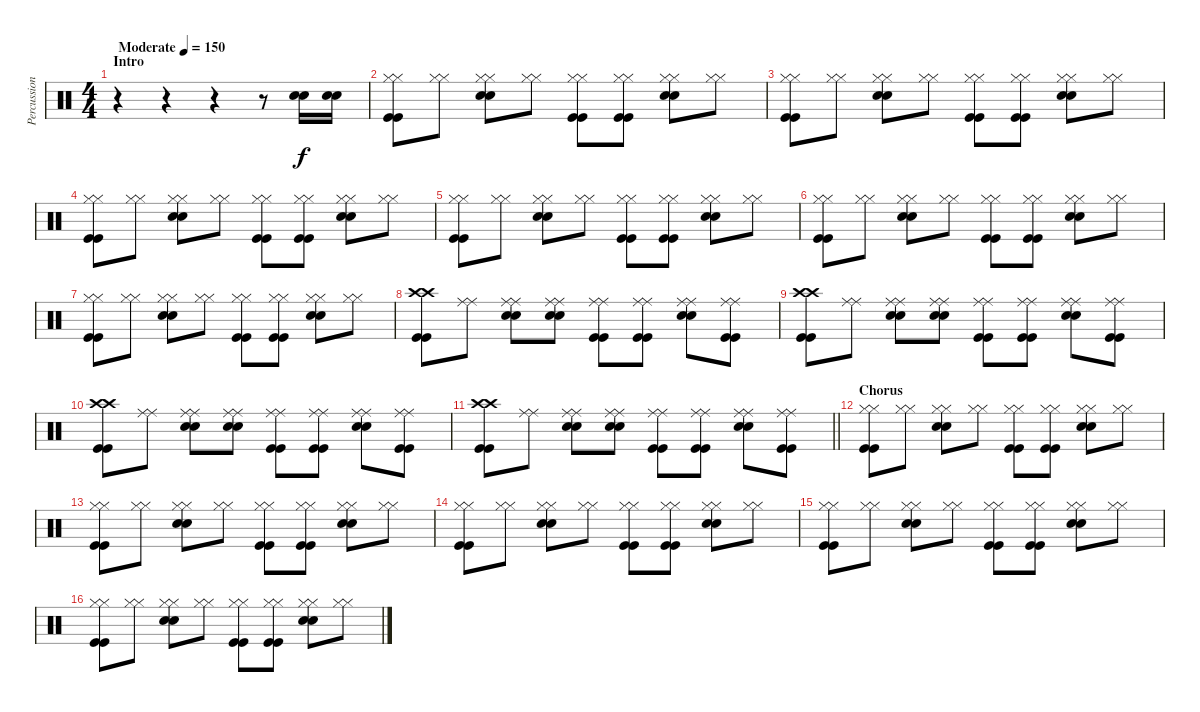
\track ("Percussion" "Percussion") {instrument percussion bank 129}
\staff
\articulation defaults
\ts (4 4)
\section ("" "Intro")
\tempo (150 "Moderate")
\clef neutral
\ks c
r.4{dy f} r.4 r.4 r.8 ("Snare (hit) 2" "Snare (hit) 2").16 ("Snare (hit) 2" "Snare (hit) 2").16 |
("Hi-Hat (closed)" "Hi-Hat (closed)" "Kick (hit)" "Kick (hit)").8 ("Hi-Hat (closed)" "Hi-Hat (closed)").8 ("Hi-Hat (closed)" "Hi-Hat (closed)" "Snare (hit) 2" "Snare (hit) 2").8 ("Hi-Hat (closed)" "Hi-Hat (closed)").8 ("Hi-Hat (closed)" "Hi-Hat (closed)" "Kick (hit)" "Kick (hit)").8 ("Hi-Hat (closed)" "Hi-Hat (closed)" "Kick (hit)" "Kick (hit)").8 ("Hi-Hat (closed)" "Hi-Hat (closed)" "Snare (hit) 2" "Snare (hit) 2").8 ("Hi-Hat (closed)" "Hi-Hat (closed)").8 |
("Hi-Hat (closed)" "Hi-Hat (closed)" "Kick (hit)" "Kick (hit)").8 ("Hi-Hat (closed)" "Hi-Hat (closed)").8 ("Hi-Hat (closed)" "Hi-Hat (closed)" "Snare (hit) 2" "Snare (hit) 2").8 ("Hi-Hat (closed)" "Hi-Hat (closed)").8 ("Hi-Hat (closed)" "Hi-Hat (closed)" "Kick (hit)" "Kick (hit)").8 ("Hi-Hat (closed)" "Hi-Hat (closed)" "Kick (hit)" "Kick (hit)").8 ("Hi-Hat (closed)" "Hi-Hat (closed)" "Snare (hit) 2" "Snare (hit) 2").8 ("Hi-Hat (closed)" "Hi-Hat (closed)").8 |
("Hi-Hat (closed)" "Hi-Hat (closed)" "Kick (hit)" "Kick (hit)").8 ("Hi-Hat (closed)" "Hi-Hat (closed)").8 ("Hi-Hat (closed)" "Hi-Hat (closed)" "Snare (hit) 2" "Snare (hit) 2").8 ("Hi-Hat (closed)" "Hi-Hat (closed)").8 ("Hi-Hat (closed)" "Hi-Hat (closed)" "Kick (hit)" "Kick (hit)").8 ("Hi-Hat (closed)" "Hi-Hat (closed)" "Kick (hit)" "Kick (hit)").8 ("Hi-Hat (closed)" "Hi-Hat (closed)" "Snare (hit) 2" "Snare (hit) 2").8 ("Hi-Hat (closed)" "Hi-Hat (closed)").8 |
("Hi-Hat (closed)" "Hi-Hat (closed)" "Kick (hit)" "Kick (hit)").8 ("Hi-Hat (closed)" "Hi-Hat (closed)").8 ("Hi-Hat (closed)" "Hi-Hat (closed)" "Snare (hit) 2" "Snare (hit) 2").8 ("Hi-Hat (closed)" "Hi-Hat (closed)").8 ("Hi-Hat (closed)" "Hi-Hat (closed)" "Kick (hit)" "Kick (hit)").8 ("Hi-Hat (closed)" "Hi-Hat (closed)" "Kick (hit)" "Kick (hit)").8 ("Hi-Hat (closed)" "Hi-Hat (closed)" "Snare (hit) 2" "Snare (hit) 2").8 ("Hi-Hat (closed)" "Hi-Hat (closed)").8 |
("Hi-Hat (closed)" "Hi-Hat (closed)" "Kick (hit)" "Kick (hit)").8 ("Hi-Hat (closed)" "Hi-Hat (closed)").8 ("Hi-Hat (closed)" "Hi-Hat (closed)" "Snare (hit) 2" "Snare (hit) 2").8 ("Hi-Hat (closed)" "Hi-Hat (closed)").8 ("Hi-Hat (closed)" "Hi-Hat (closed)" "Kick (hit)" "Kick (hit)").8 ("Hi-Hat (closed)" "Hi-Hat (closed)" "Kick (hit)" "Kick (hit)").8 ("Hi-Hat (closed)" "Hi-Hat (closed)" "Snare (hit) 2" "Snare (hit) 2").8 ("Hi-Hat (closed)" "Hi-Hat (closed)").8 |
("Hi-Hat (closed)" "Hi-Hat (closed)" "Kick (hit)" "Kick (hit)").8 ("Hi-Hat (closed)" "Hi-Hat (closed)").8 ("Hi-Hat (closed)" "Hi-Hat (closed)" "Snare (hit) 2" "Snare (hit) 2").8 ("Hi-Hat (closed)" "Hi-Hat (closed)").8 ("Hi-Hat (closed)" "Hi-Hat (closed)" "Kick (hit)" "Kick (hit)").8 ("Hi-Hat (closed)" "Hi-Hat (closed)" "Kick (hit)" "Kick (hit)").8 ("Hi-Hat (closed)" "Hi-Hat (closed)" "Snare (hit) 2" "Snare (hit) 2").8 ("Hi-Hat (closed)" "Hi-Hat (closed)").8 |
("Crash high (hit)" "Crash high (hit)" "Kick (hit)" "Kick (hit)").8 ("Ride (middle)" "Ride (middle)").8 ("Ride (middle)" "Ride (middle)" "Snare (hit) 2" "Snare (hit) 2").8 ("Ride (middle)" "Ride (middle)" "Snare (hit) 2" "Snare (hit) 2").8 ("Ride (middle)" "Ride (middle)" "Kick (hit)" "Kick (hit)").8 ("Ride (middle)" "Ride (middle)" "Kick (hit)" "Kick (hit)").8 ("Ride (middle)" "Ride (middle)" "Snare (hit) 2" "Snare (hit) 2").8 ("Ride (middle)" "Ride (middle)" "Kick (hit)" "Kick (hit)").8 |
("Crash high (hit)" "Crash high (hit)" "Kick (hit)" "Kick (hit)").8 ("Ride (middle)" "Ride (middle)").8 ("Ride (middle)" "Ride (middle)" "Snare (hit) 2" "Snare (hit) 2").8 ("Ride (middle)" "Ride (middle)" "Snare (hit) 2" "Snare (hit) 2").8 ("Ride (middle)" "Ride (middle)" "Kick (hit)" "Kick (hit)").8 ("Ride (middle)" "Ride (middle)" "Kick (hit)" "Kick (hit)").8 ("Ride (middle)" "Ride (middle)" "Snare (hit) 2" "Snare (hit) 2").8 ("Ride (middle)" "Ride (middle)" "Kick (hit)" "Kick (hit)").8 |
("Crash high (hit)" "Crash high (hit)" "Kick (hit)" "Kick (hit)").8 ("Ride (middle)" "Ride (middle)").8 ("Ride (middle)" "Ride (middle)" "Snare (hit) 2" "Snare (hit) 2").8 ("Ride (middle)" "Ride (middle)" "Snare (hit) 2" "Snare (hit) 2").8 ("Ride (middle)" "Ride (middle)" "Kick (hit)" "Kick (hit)").8 ("Ride (middle)" "Ride (middle)" "Kick (hit)" "Kick (hit)").8 ("Ride (middle)" "Ride (middle)" "Snare (hit) 2" "Snare (hit) 2").8 ("Ride (middle)" "Ride (middle)" "Kick (hit)" "Kick (hit)").8 |
\barLineRight lightlight
("Crash high (hit)" "Crash high (hit)" "Kick (hit)" "Kick (hit)").8 ("Ride (middle)" "Ride (middle)").8 ("Ride (middle)" "Ride (middle)" "Snare (hit) 2" "Snare (hit) 2").8 ("Ride (middle)" "Ride (middle)" "Snare (hit) 2" "Snare (hit) 2").8 ("Ride (middle)" "Ride (middle)" "Kick (hit)" "Kick (hit)").8 ("Ride (middle)" "Ride (middle)" "Kick (hit)" "Kick (hit)").8 ("Ride (middle)" "Ride (middle)" "Snare (hit) 2" "Snare (hit) 2").8 ("Ride (middle)" "Ride (middle)" "Kick (hit)" "Kick (hit)").8 |
\section ("" "Chorus")
("Hi-Hat (closed)" "Hi-Hat (closed)" "Kick (hit)" "Kick (hit)").8 ("Hi-Hat (closed)" "Hi-Hat (closed)").8 ("Hi-Hat (closed)" "Hi-Hat (closed)" "Snare (hit) 2" "Snare (hit) 2").8 ("Hi-Hat (closed)" "Hi-Hat (closed)").8 ("Hi-Hat (closed)" "Hi-Hat (closed)" "Kick (hit)" "Kick (hit)").8 ("Hi-Hat (closed)" "Hi-Hat (closed)" "Kick (hit)" "Kick (hit)").8 ("Hi-Hat (closed)" "Hi-Hat (closed)" "Snare (hit) 2" "Snare (hit) 2").8 ("Hi-Hat (closed)" "Hi-Hat (closed)").8 |
("Hi-Hat (closed)" "Hi-Hat (closed)" "Kick (hit)" "Kick (hit)").8 ("Hi-Hat (closed)" "Hi-Hat (closed)").8 ("Hi-Hat (closed)" "Hi-Hat (closed)" "Snare (hit) 2" "Snare (hit) 2").8 ("Hi-Hat (closed)" "Hi-Hat (closed)").8 ("Hi-Hat (closed)" "Hi-Hat (closed)" "Kick (hit)" "Kick (hit)").8 ("Hi-Hat (closed)" "Hi-Hat (closed)" "Kick (hit)" "Kick (hit)").8 ("Hi-Hat (closed)" "Hi-Hat (closed)" "Snare (hit) 2" "Snare (hit) 2").8 ("Hi-Hat (closed)" "Hi-Hat (closed)").8 |
("Hi-Hat (closed)" "Hi-Hat (closed)" "Kick (hit)" "Kick (hit)").8 ("Hi-Hat (closed)" "Hi-Hat (closed)").8 ("Hi-Hat (closed)" "Hi-Hat (closed)" "Snare (hit) 2" "Snare (hit) 2").8 ("Hi-Hat (closed)" "Hi-Hat (closed)").8 ("Hi-Hat (closed)" "Hi-Hat (closed)" "Kick (hit)" "Kick (hit)").8 ("Hi-Hat (closed)" "Hi-Hat (closed)" "Kick (hit)" "Kick (hit)").8 ("Hi-Hat (closed)" "Hi-Hat (closed)" "Snare (hit) 2" "Snare (hit) 2").8 ("Hi-Hat (closed)" "Hi-Hat (closed)").8 |
("Hi-Hat (closed)" "Hi-Hat (closed)" "Kick (hit)" "Kick (hit)").8 ("Hi-Hat (closed)" "Hi-Hat (closed)").8 ("Hi-Hat (closed)" "Hi-Hat (closed)" "Snare (hit) 2" "Snare (hit) 2").8 ("Hi-Hat (closed)" "Hi-Hat (closed)").8 ("Hi-Hat (closed)" "Hi-Hat (closed)" "Kick (hit)" "Kick (hit)").8 ("Hi-Hat (closed)" "Hi-Hat (closed)" "Kick (hit)" "Kick (hit)").8 ("Hi-Hat (closed)" "Hi-Hat (closed)" "Snare (hit) 2" "Snare (hit) 2").8 ("Hi-Hat (closed)" "Hi-Hat (closed)").8 |
("Hi-Hat (closed)" "Hi-Hat (closed)" "Kick (hit)" "Kick (hit)").8 ("Hi-Hat (closed)" "Hi-Hat (closed)").8 ("Hi-Hat (closed)" "Hi-Hat (closed)" "Snare (hit) 2" "Snare (hit) 2").8 ("Hi-Hat (closed)" "Hi-Hat (closed)").8 ("Hi-Hat (closed)" "Hi-Hat (closed)" "Kick (hit)" "Kick (hit)").8 ("Hi-Hat (closed)" "Hi-Hat (closed)" "Kick (hit)" "Kick (hit)").8 ("Hi-Hat (closed)" "Hi-Hat (closed)" "Snare (hit) 2" "Snare (hit) 2").8 ("Hi-Hat (closed)" "Hi-Hat (closed)").8
